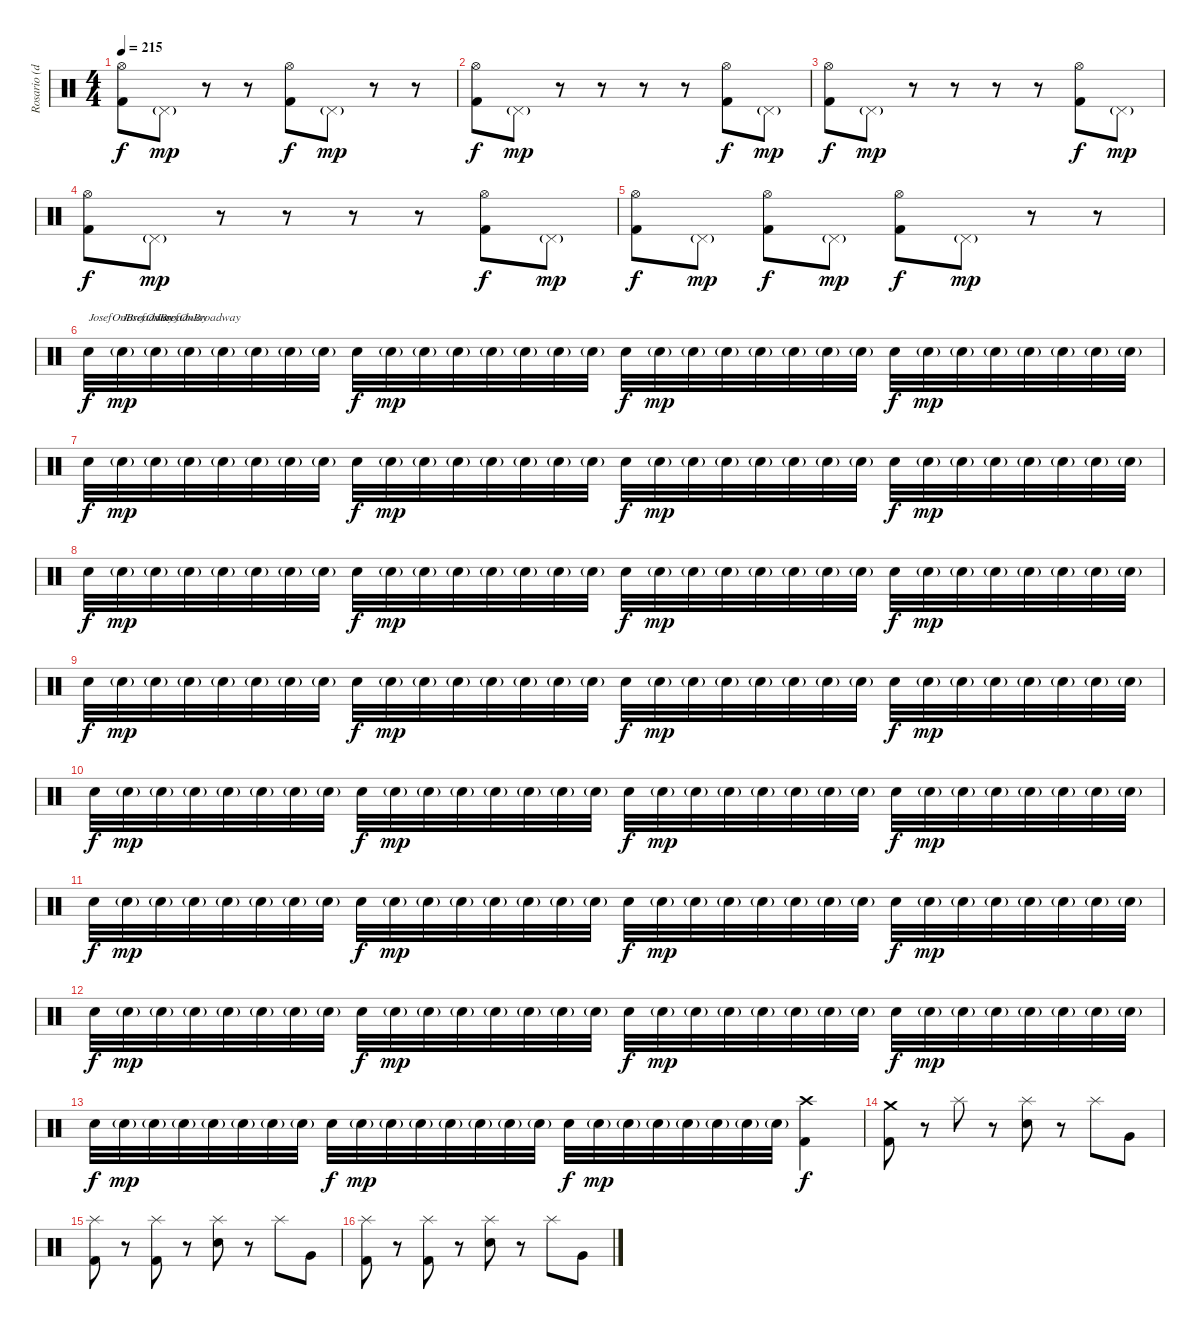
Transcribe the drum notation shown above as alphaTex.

\track ("Rosario (drum)" "Rosario (d") {instrument percussion}
\staff {score}
\articulation defaults
\ts (4 4)
\tempo 215
\clef neutral
\ks c
("Hi-Hat (open)" "Kick (hit) 2").8{dy f} "Pedal Hi-Hat (hit)"{g}.8{dy mp} r.8 r.8 ("Hi-Hat (open)" "Kick (hit) 2").8{dy f} "Pedal Hi-Hat (hit)"{g}.8{dy mp} r.8 r.8 |
("Hi-Hat (open)" "Kick (hit) 2").8{dy f} "Pedal Hi-Hat (hit)"{g}.8{dy mp} r.8 r.8 r.8 r.8 ("Hi-Hat (open)" "Kick (hit) 2").8{dy f} "Pedal Hi-Hat (hit)"{g}.8{dy mp} |
("Hi-Hat (open)" "Kick (hit) 2").8{dy f} "Pedal Hi-Hat (hit)"{g}.8{dy mp} r.8 r.8 r.8 r.8 ("Hi-Hat (open)" "Kick (hit) 2").8{dy f} "Pedal Hi-Hat (hit)"{g}.8{dy mp} |
("Hi-Hat (open)" "Kick (hit) 2").8{dy f} "Pedal Hi-Hat (hit)"{g}.8{dy mp} r.8 r.8 r.8 r.8 ("Hi-Hat (open)" "Kick (hit) 2").8{dy f} "Pedal Hi-Hat (hit)"{g}.8{dy mp} |
("Hi-Hat (open)" "Kick (hit) 2").8{dy f} "Pedal Hi-Hat (hit)"{g}.8{dy mp} ("Hi-Hat (open)" "Kick (hit) 2").8{dy f} "Pedal Hi-Hat (hit)"{g}.8{dy mp} ("Hi-Hat (open)" "Kick (hit) 2").8{dy f} "Pedal Hi-Hat (hit)"{g}.8{dy mp} r.8 r.8{volume 4} |
"Electric Snare (hit)".32{txt "JosefOnBroadway" dy f volume 7} "Electric Snare (hit)"{g}.32{txt "JosefOnBroadway" dy mp} "Electric Snare (hit)"{g}.32{txt "JosefOnBroadway"} "Electric Snare (hit)"{g}.32 "Electric Snare (hit)"{g}.32 "Electric Snare (hit)"{g}.32 "Electric Snare (hit)"{g}.32 "Electric Snare (hit)"{g}.32 "Electric Snare (hit)".32{dy f} "Electric Snare (hit)"{g}.32{dy mp} "Electric Snare (hit)"{g}.32 "Electric Snare (hit)"{g}.32 "Electric Snare (hit)"{g}.32 "Electric Snare (hit)"{g}.32 "Electric Snare (hit)"{g}.32 "Electric Snare (hit)"{g}.32 "Electric Snare (hit)".32{dy f} "Electric Snare (hit)"{g}.32{dy mp} "Electric Snare (hit)"{g}.32 "Electric Snare (hit)"{g}.32 "Electric Snare (hit)"{g}.32 "Electric Snare (hit)"{g}.32 "Electric Snare (hit)"{g}.32 "Electric Snare (hit)"{g}.32 "Electric Snare (hit)".32{dy f} "Electric Snare (hit)"{g}.32{dy mp} "Electric Snare (hit)"{g}.32 "Electric Snare (hit)"{g}.32 "Electric Snare (hit)"{g}.32 "Electric Snare (hit)"{g}.32 "Electric Snare (hit)"{g}.32 "Electric Snare (hit)"{g}.32 |
"Electric Snare (hit)".32{dy f} "Electric Snare (hit)"{g}.32{dy mp} "Electric Snare (hit)"{g}.32 "Electric Snare (hit)"{g}.32 "Electric Snare (hit)"{g}.32 "Electric Snare (hit)"{g}.32 "Electric Snare (hit)"{g}.32 "Electric Snare (hit)"{g}.32 "Electric Snare (hit)".32{dy f} "Electric Snare (hit)"{g}.32{dy mp} "Electric Snare (hit)"{g}.32 "Electric Snare (hit)"{g}.32 "Electric Snare (hit)"{g}.32 "Electric Snare (hit)"{g}.32 "Electric Snare (hit)"{g}.32 "Electric Snare (hit)"{g}.32 "Electric Snare (hit)".32{dy f} "Electric Snare (hit)"{g}.32{dy mp} "Electric Snare (hit)"{g}.32 "Electric Snare (hit)"{g}.32 "Electric Snare (hit)"{g}.32 "Electric Snare (hit)"{g}.32 "Electric Snare (hit)"{g}.32 "Electric Snare (hit)"{g}.32 "Electric Snare (hit)".32{dy f} "Electric Snare (hit)"{g}.32{dy mp} "Electric Snare (hit)"{g}.32 "Electric Snare (hit)"{g}.32 "Electric Snare (hit)"{g}.32 "Electric Snare (hit)"{g}.32 "Electric Snare (hit)"{g}.32 "Electric Snare (hit)"{g}.32 |
"Electric Snare (hit)".32{dy f} "Electric Snare (hit)"{g}.32{dy mp} "Electric Snare (hit)"{g}.32 "Electric Snare (hit)"{g}.32 "Electric Snare (hit)"{g}.32 "Electric Snare (hit)"{g}.32 "Electric Snare (hit)"{g}.32 "Electric Snare (hit)"{g}.32 "Electric Snare (hit)".32{dy f} "Electric Snare (hit)"{g}.32{dy mp} "Electric Snare (hit)"{g}.32 "Electric Snare (hit)"{g}.32 "Electric Snare (hit)"{g}.32 "Electric Snare (hit)"{g}.32 "Electric Snare (hit)"{g}.32 "Electric Snare (hit)"{g}.32 "Electric Snare (hit)".32{dy f} "Electric Snare (hit)"{g}.32{dy mp} "Electric Snare (hit)"{g}.32 "Electric Snare (hit)"{g}.32 "Electric Snare (hit)"{g}.32 "Electric Snare (hit)"{g}.32 "Electric Snare (hit)"{g}.32 "Electric Snare (hit)"{g}.32 "Electric Snare (hit)".32{dy f} "Electric Snare (hit)"{g}.32{dy mp} "Electric Snare (hit)"{g}.32 "Electric Snare (hit)"{g}.32 "Electric Snare (hit)"{g}.32 "Electric Snare (hit)"{g}.32 "Electric Snare (hit)"{g}.32 "Electric Snare (hit)"{g}.32 |
"Electric Snare (hit)".32{dy f} "Electric Snare (hit)"{g}.32{dy mp} "Electric Snare (hit)"{g}.32 "Electric Snare (hit)"{g}.32 "Electric Snare (hit)"{g}.32 "Electric Snare (hit)"{g}.32 "Electric Snare (hit)"{g}.32 "Electric Snare (hit)"{g}.32 "Electric Snare (hit)".32{dy f} "Electric Snare (hit)"{g}.32{dy mp} "Electric Snare (hit)"{g}.32 "Electric Snare (hit)"{g}.32 "Electric Snare (hit)"{g}.32 "Electric Snare (hit)"{g}.32 "Electric Snare (hit)"{g}.32 "Electric Snare (hit)"{g}.32 "Electric Snare (hit)".32{dy f} "Electric Snare (hit)"{g}.32{dy mp} "Electric Snare (hit)"{g}.32 "Electric Snare (hit)"{g}.32 "Electric Snare (hit)"{g}.32 "Electric Snare (hit)"{g}.32 "Electric Snare (hit)"{g}.32 "Electric Snare (hit)"{g}.32 "Electric Snare (hit)".32{dy f} "Electric Snare (hit)"{g}.32{dy mp} "Electric Snare (hit)"{g}.32 "Electric Snare (hit)"{g}.32 "Electric Snare (hit)"{g}.32 "Electric Snare (hit)"{g}.32 "Electric Snare (hit)"{g}.32 "Electric Snare (hit)"{g}.32 |
"Electric Snare (hit)".32{dy f} "Electric Snare (hit)"{g}.32{dy mp} "Electric Snare (hit)"{g}.32 "Electric Snare (hit)"{g}.32 "Electric Snare (hit)"{g}.32 "Electric Snare (hit)"{g}.32 "Electric Snare (hit)"{g}.32 "Electric Snare (hit)"{g}.32 "Electric Snare (hit)".32{dy f} "Electric Snare (hit)"{g}.32{dy mp} "Electric Snare (hit)"{g}.32 "Electric Snare (hit)"{g}.32 "Electric Snare (hit)"{g}.32 "Electric Snare (hit)"{g}.32 "Electric Snare (hit)"{g}.32 "Electric Snare (hit)"{g}.32 "Electric Snare (hit)".32{dy f} "Electric Snare (hit)"{g}.32{dy mp} "Electric Snare (hit)"{g}.32 "Electric Snare (hit)"{g}.32 "Electric Snare (hit)"{g}.32 "Electric Snare (hit)"{g}.32 "Electric Snare (hit)"{g}.32 "Electric Snare (hit)"{g}.32 "Electric Snare (hit)".32{dy f} "Electric Snare (hit)"{g}.32{dy mp} "Electric Snare (hit)"{g}.32 "Electric Snare (hit)"{g}.32 "Electric Snare (hit)"{g}.32 "Electric Snare (hit)"{g}.32 "Electric Snare (hit)"{g}.32 "Electric Snare (hit)"{g}.32 |
"Electric Snare (hit)".32{dy f} "Electric Snare (hit)"{g}.32{dy mp} "Electric Snare (hit)"{g}.32 "Electric Snare (hit)"{g}.32 "Electric Snare (hit)"{g}.32 "Electric Snare (hit)"{g}.32 "Electric Snare (hit)"{g}.32 "Electric Snare (hit)"{g}.32 "Electric Snare (hit)".32{dy f} "Electric Snare (hit)"{g}.32{dy mp} "Electric Snare (hit)"{g}.32 "Electric Snare (hit)"{g}.32 "Electric Snare (hit)"{g}.32 "Electric Snare (hit)"{g}.32 "Electric Snare (hit)"{g}.32 "Electric Snare (hit)"{g}.32 "Electric Snare (hit)".32{dy f} "Electric Snare (hit)"{g}.32{dy mp} "Electric Snare (hit)"{g}.32 "Electric Snare (hit)"{g}.32 "Electric Snare (hit)"{g}.32 "Electric Snare (hit)"{g}.32 "Electric Snare (hit)"{g}.32 "Electric Snare (hit)"{g}.32 "Electric Snare (hit)".32{dy f} "Electric Snare (hit)"{g}.32{dy mp} "Electric Snare (hit)"{g}.32 "Electric Snare (hit)"{g}.32 "Electric Snare (hit)"{g}.32 "Electric Snare (hit)"{g}.32 "Electric Snare (hit)"{g}.32 "Electric Snare (hit)"{g}.32 |
"Electric Snare (hit)".32{dy f} "Electric Snare (hit)"{g}.32{dy mp} "Electric Snare (hit)"{g}.32 "Electric Snare (hit)"{g}.32 "Electric Snare (hit)"{g}.32 "Electric Snare (hit)"{g}.32 "Electric Snare (hit)"{g}.32 "Electric Snare (hit)"{g}.32 "Electric Snare (hit)".32{dy f} "Electric Snare (hit)"{g}.32{dy mp} "Electric Snare (hit)"{g}.32 "Electric Snare (hit)"{g}.32 "Electric Snare (hit)"{g}.32 "Electric Snare (hit)"{g}.32 "Electric Snare (hit)"{g}.32 "Electric Snare (hit)"{g}.32 "Electric Snare (hit)".32{dy f} "Electric Snare (hit)"{g}.32{dy mp} "Electric Snare (hit)"{g}.32 "Electric Snare (hit)"{g}.32 "Electric Snare (hit)"{g}.32 "Electric Snare (hit)"{g}.32 "Electric Snare (hit)"{g}.32 "Electric Snare (hit)"{g}.32 "Electric Snare (hit)".32{dy f} "Electric Snare (hit)"{g}.32{dy mp} "Electric Snare (hit)"{g}.32 "Electric Snare (hit)"{g}.32 "Electric Snare (hit)"{g}.32 "Electric Snare (hit)"{g}.32 "Electric Snare (hit)"{g}.32 "Electric Snare (hit)"{g}.32 |
"Electric Snare (hit)".32{dy f} "Electric Snare (hit)"{g}.32{dy mp} "Electric Snare (hit)"{g}.32 "Electric Snare (hit)"{g}.32 "Electric Snare (hit)"{g}.32 "Electric Snare (hit)"{g}.32 "Electric Snare (hit)"{g}.32 "Electric Snare (hit)"{g}.32 "Electric Snare (hit)".32{dy f} "Electric Snare (hit)"{g}.32{dy mp} "Electric Snare (hit)"{g}.32 "Electric Snare (hit)"{g}.32 "Electric Snare (hit)"{g}.32 "Electric Snare (hit)"{g}.32 "Electric Snare (hit)"{g}.32 "Electric Snare (hit)"{g}.32 "Electric Snare (hit)".32{dy f} "Electric Snare (hit)"{g}.32{dy mp} "Electric Snare (hit)"{g}.32 "Electric Snare (hit)"{g}.32 "Electric Snare (hit)"{g}.32 "Electric Snare (hit)"{g}.32 "Electric Snare (hit)"{g}.32 "Electric Snare (hit)"{g}.32 ("Crash high (hit)" "Kick (hit) 2").4{dy f} |
("Crash medium (hit)" "Kick (hit) 2").8 r.8 "Splash (hit)".8 r.8 ("Splash (hit)" "Electric Snare (hit)").8 r.8 "Splash (hit)".8 "Very Low Tom (hit)".8 |
("Splash (hit)" "Kick (hit) 2").8 r.8 ("Splash (hit)" "Kick (hit) 2").8 r.8 ("Splash (hit)" "Electric Snare (hit)").8 r.8 "Splash (hit)".8 "Very Low Tom (hit)".8 |
("Splash (hit)" "Kick (hit) 2").8 r.8 ("Splash (hit)" "Kick (hit) 2").8 r.8 ("Splash (hit)" "Electric Snare (hit)").8 r.8 "Splash (hit)".8 "Very Low Tom (hit)".8
